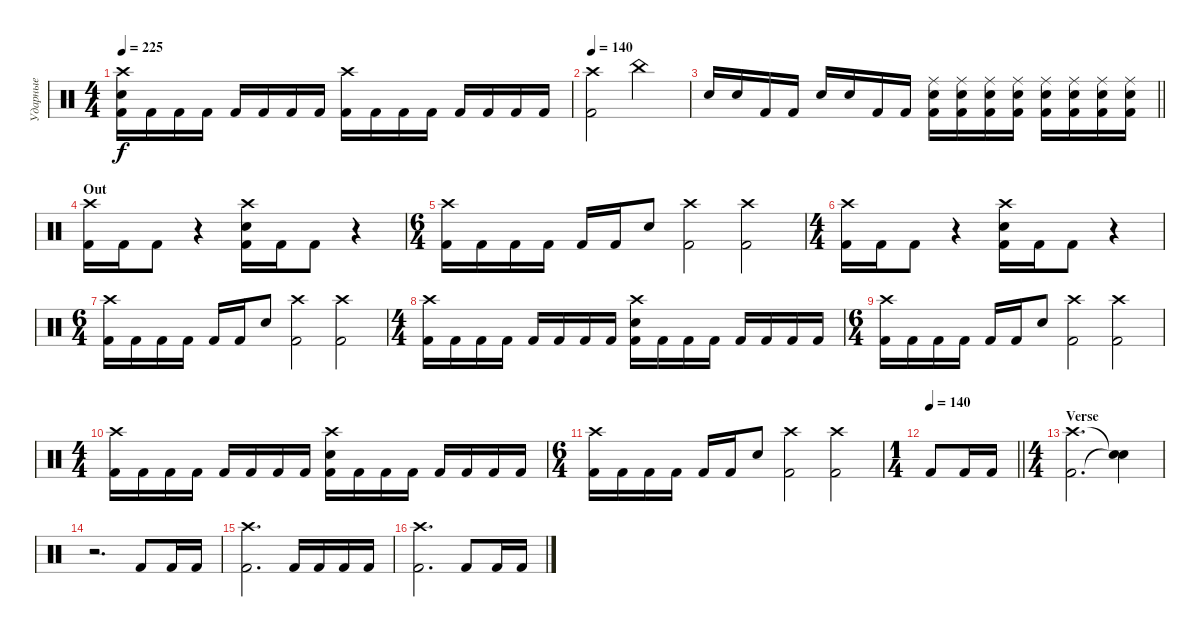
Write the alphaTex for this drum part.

\track ("Ударные" "Ударные") {instrument percussion}
\staff {score}
\articulation defaults
\ts (4 4)
\tempo 225
\clef neutral
\ks c
("Crash high (hit)" "Electric Snare (hit)" "Kick (hit) 2").16{dy f} "Kick (hit) 2".16 "Kick (hit) 2".16 "Kick (hit) 2".16 "Kick (hit) 2".16 "Kick (hit) 2".16 "Kick (hit) 2".16 "Kick (hit) 2".16 ("Crash high (hit)" "Kick (hit) 2").16 "Kick (hit) 2".16 "Kick (hit) 2".16 "Kick (hit) 2".16 "Kick (hit) 2".16 "Kick (hit) 2".16 "Kick (hit) 2".16 "Kick (hit) 2".16 |
\tempo 140
("Crash high (hit)" "Kick (hit) 2").2 "China (hit)".2 |
\barLineRight lightlight "Electric Snare (hit)".16 "Electric Snare (hit)".16 "Kick (hit) 2".16 "Kick (hit) 2".16 "Electric Snare (hit)".16 "Electric Snare (hit)".16 "Kick (hit) 2".16 "Kick (hit) 2".16
("Ride (middle)" "Electric Snare (hit)" "Kick (hit) 2").16 ("Ride (middle)" "Electric Snare (hit)" "Kick (hit) 2").16 ("Ride (middle)" "Electric Snare (hit)" "Kick (hit) 2").16 ("Ride (middle)" "Electric Snare (hit)" "Kick (hit) 2").16 ("Ride (middle)" "Electric Snare (hit)" "Kick (hit) 2").16 ("Ride (middle)" "Electric Snare (hit)" "Kick (hit) 2").16 ("Ride (middle)" "Electric Snare (hit)" "Kick (hit) 2").16 ("Ride (middle)" "Electric Snare (hit)" "Kick (hit) 2").16 |
\section ("" "Out")
("Crash high (hit)" "Kick (hit) 2").16 "Kick (hit) 2".16 "Kick (hit) 2".8 r.4 ("Crash high (hit)" "Electric Snare (hit)" "Kick (hit) 2").16 "Kick (hit) 2".16 "Kick (hit) 2".8 r.4 |
\ts (6 4)
("Crash high (hit)" "Kick (hit) 2").16 "Kick (hit) 2".16 "Kick (hit) 2".16 "Kick (hit) 2".16 "Kick (hit) 2".16 "Kick (hit) 2".16 "Electric Snare (hit)".8 ("Crash high (hit)" "Kick (hit) 2").2 ("Crash high (hit)" "Kick (hit) 2").2 |
\ts (4 4)
("Crash high (hit)" "Kick (hit) 2").16 "Kick (hit) 2".16 "Kick (hit) 2".8 r.4 ("Crash high (hit)" "Electric Snare (hit)" "Kick (hit) 2").16 "Kick (hit) 2".16 "Kick (hit) 2".8 r.4 |
\ts (6 4)
("Crash high (hit)" "Kick (hit) 2").16 "Kick (hit) 2".16 "Kick (hit) 2".16 "Kick (hit) 2".16 "Kick (hit) 2".16 "Kick (hit) 2".16 "Electric Snare (hit)".8 ("Crash high (hit)" "Kick (hit) 2").2 ("Crash high (hit)" "Kick (hit) 2").2 |
\ts (4 4)
("Crash high (hit)" "Kick (hit) 2").16 "Kick (hit) 2".16 "Kick (hit) 2".16 "Kick (hit) 2".16 "Kick (hit) 2".16 "Kick (hit) 2".16 "Kick (hit) 2".16 "Kick (hit) 2".16 ("Crash high (hit)" "Electric Snare (hit)" "Kick (hit) 2").16 "Kick (hit) 2".16 "Kick (hit) 2".16 "Kick (hit) 2".16 "Kick (hit) 2".16 "Kick (hit) 2".16 "Kick (hit) 2".16 "Kick (hit) 2".16 |
\ts (6 4)
("Crash high (hit)" "Kick (hit) 2").16 "Kick (hit) 2".16 "Kick (hit) 2".16 "Kick (hit) 2".16 "Kick (hit) 2".16 "Kick (hit) 2".16 "Electric Snare (hit)".8 ("Crash high (hit)" "Kick (hit) 2").2 ("Crash high (hit)" "Kick (hit) 2").2 |
\ts (4 4)
("Crash high (hit)" "Kick (hit) 2").16 "Kick (hit) 2".16 "Kick (hit) 2".16 "Kick (hit) 2".16 "Kick (hit) 2".16 "Kick (hit) 2".16 "Kick (hit) 2".16 "Kick (hit) 2".16 ("Crash high (hit)" "Electric Snare (hit)" "Kick (hit) 2").16 "Kick (hit) 2".16 "Kick (hit) 2".16 "Kick (hit) 2".16 "Kick (hit) 2".16 "Kick (hit) 2".16 "Kick (hit) 2".16 "Kick (hit) 2".16 |
\ts (6 4)
("Crash high (hit)" "Kick (hit) 2").16 "Kick (hit) 2".16 "Kick (hit) 2".16 "Kick (hit) 2".16 "Kick (hit) 2".16 "Kick (hit) 2".16 "Electric Snare (hit)".8 ("Crash high (hit)" "Kick (hit) 2").2 ("Crash high (hit)" "Kick (hit) 2").2 |
\ts (1 4)
\tempo 140
\barLineRight lightlight "Kick (hit) 2".8 "Kick (hit) 2".16 "Kick (hit) 2".16
|
\ts (4 4)
\section ("" "Verse")
("Crash high (hit)" "Kick (hit) 2").2{d} ("Snare (hit)"{t} "Snare (hit)"{t}).4 |
r.2{d} "Kick (hit) 2".8 "Kick (hit) 2".16 "Kick (hit) 2".16 |
("Crash high (hit)" "Kick (hit) 2").2{d} "Kick (hit) 2".16 "Kick (hit) 2".16 "Kick (hit) 2".16 "Kick (hit) 2".16 |
("Crash high (hit)" "Kick (hit) 2").2{d} "Kick (hit) 2".8 "Kick (hit) 2".16 "Kick (hit) 2".16
